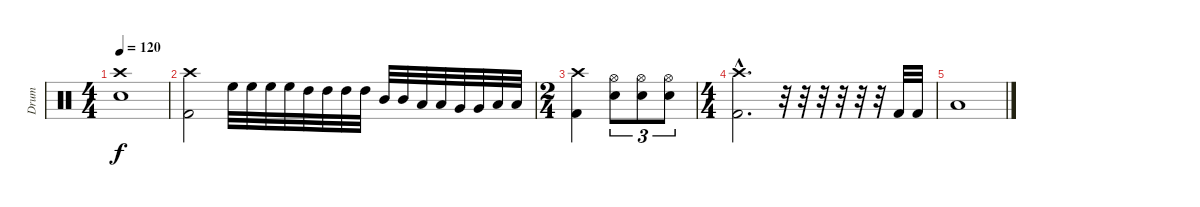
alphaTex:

\track ("Drum" "Drum") {instrument percussion}
\staff {score}
\articulation defaults
\ts (4 4)
\tempo 120
\clef neutral
\ks c
("Crash high (hit)" "Electric Snare (hit)").1{dy f} |
("Crash high (hit)" "Kick (hit) 2").2 "High Floor Tom (hit)".32 "High Floor Tom (hit)".32 "High Floor Tom (hit)".32 "High Floor Tom (hit)".32 "High Tom (hit)".32 "High Tom (hit)".32 "High Tom (hit)".32 "High Tom (hit)".32 "Mid Tom (hit)".32 "Mid Tom (hit)".32 "Low Tom (hit)".32 "Low Tom (hit)".32 "Very Low Tom (hit)".32 "Very Low Tom (hit)".32 "Low Floor Tom (hit)".32 "Low Floor Tom (hit)".32 |
\ts (2 4)
("Crash high (hit)" "Kick (hit) 2").4 ("Electric Snare (hit)" "Hi-Hat (open)").8{tu (3 2)} ("Electric Snare (hit)" "Hi-Hat (open)").8{tu (3 2)} ("Electric Snare (hit)" "Hi-Hat (open)").8{tu (3 2)} |
\ts (4 4)
("Crash high (hit)"{hac} "Kick (hit) 2"{hac}).2{d} r.32 r.32 r.32 r.32 r.32 r.32 "Kick (hit) 2".32 "Kick (hit) 2".32 |
"Low Floor Tom (hit)".1
